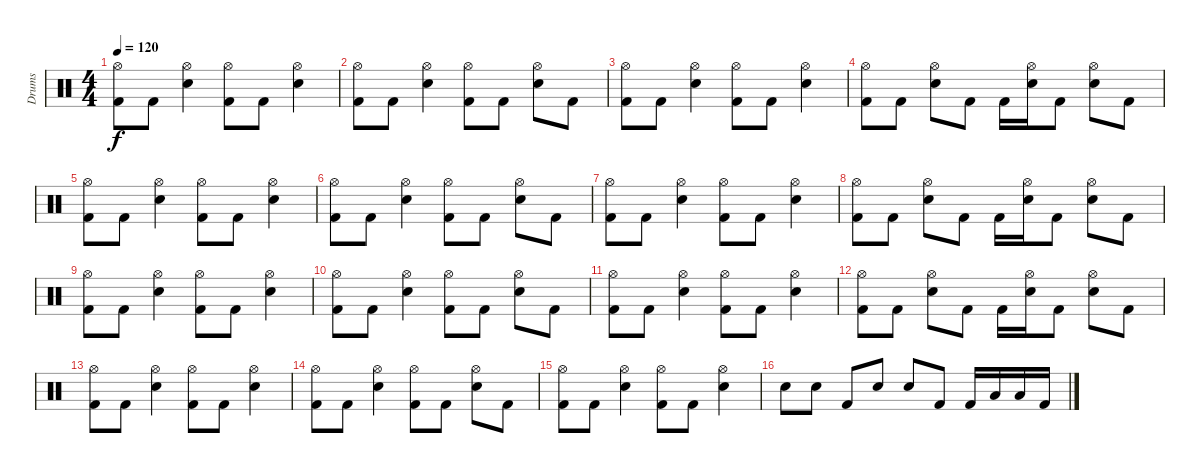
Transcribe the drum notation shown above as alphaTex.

\track ("Drums" "Drums") {instrument percussion}
\staff {score}
\articulation defaults
\ts (4 4)
\tempo 120
\clef neutral
\ks c
("Hi-Hat (open)" "Kick (hit) 2").8{dy f} "Kick (hit) 2".8 ("Hi-Hat (open)" "Snare (hit) 2").4 ("Hi-Hat (open)" "Kick (hit) 2").8 "Kick (hit) 2".8 ("Hi-Hat (open)" "Snare (hit) 2").4 |
("Hi-Hat (open)" "Kick (hit) 2").8 "Kick (hit) 2".8 ("Hi-Hat (open)" "Snare (hit) 2").4 ("Hi-Hat (open)" "Kick (hit) 2").8 "Kick (hit) 2".8 ("Hi-Hat (open)" "Snare (hit) 2").8 "Kick (hit) 2".8 |
("Hi-Hat (open)" "Kick (hit) 2").8 "Kick (hit) 2".8 ("Hi-Hat (open)" "Snare (hit) 2").4 ("Hi-Hat (open)" "Kick (hit) 2").8 "Kick (hit) 2".8 ("Hi-Hat (open)" "Snare (hit) 2").4 |
("Hi-Hat (open)" "Kick (hit) 2").8 "Kick (hit) 2".8 ("Hi-Hat (open)" "Snare (hit) 2").8 "Kick (hit) 2".8 "Kick (hit) 2".16 ("Hi-Hat (open)" "Snare (hit) 2").16 "Kick (hit) 2".8 ("Hi-Hat (open)" "Snare (hit) 2").8 "Kick (hit) 2".8 |
("Hi-Hat (open)" "Kick (hit) 2").8 "Kick (hit) 2".8 ("Hi-Hat (open)" "Snare (hit) 2").4 ("Hi-Hat (open)" "Kick (hit) 2").8 "Kick (hit) 2".8 ("Hi-Hat (open)" "Snare (hit) 2").4 |
("Hi-Hat (open)" "Kick (hit) 2").8 "Kick (hit) 2".8 ("Hi-Hat (open)" "Snare (hit) 2").4 ("Hi-Hat (open)" "Kick (hit) 2").8 "Kick (hit) 2".8 ("Hi-Hat (open)" "Snare (hit) 2").8 "Kick (hit) 2".8 |
("Hi-Hat (open)" "Kick (hit) 2").8 "Kick (hit) 2".8 ("Hi-Hat (open)" "Snare (hit) 2").4 ("Hi-Hat (open)" "Kick (hit) 2").8 "Kick (hit) 2".8 ("Hi-Hat (open)" "Snare (hit) 2").4 |
("Hi-Hat (open)" "Kick (hit) 2").8 "Kick (hit) 2".8 ("Hi-Hat (open)" "Snare (hit) 2").8 "Kick (hit) 2".8 "Kick (hit) 2".16 ("Hi-Hat (open)" "Snare (hit) 2").16 "Kick (hit) 2".8 ("Hi-Hat (open)" "Snare (hit) 2").8 "Kick (hit) 2".8 |
("Hi-Hat (open)" "Kick (hit) 2").8 "Kick (hit) 2".8 ("Hi-Hat (open)" "Snare (hit) 2").4 ("Hi-Hat (open)" "Kick (hit) 2").8 "Kick (hit) 2".8 ("Hi-Hat (open)" "Snare (hit) 2").4 |
("Hi-Hat (open)" "Kick (hit) 2").8 "Kick (hit) 2".8 ("Hi-Hat (open)" "Snare (hit) 2").4 ("Hi-Hat (open)" "Kick (hit) 2").8 "Kick (hit) 2".8 ("Hi-Hat (open)" "Snare (hit) 2").8 "Kick (hit) 2".8 |
("Hi-Hat (open)" "Kick (hit) 2").8 "Kick (hit) 2".8 ("Hi-Hat (open)" "Snare (hit) 2").4 ("Hi-Hat (open)" "Kick (hit) 2").8 "Kick (hit) 2".8 ("Hi-Hat (open)" "Snare (hit) 2").4 |
("Hi-Hat (open)" "Kick (hit) 2").8 "Kick (hit) 2".8 ("Hi-Hat (open)" "Snare (hit) 2").8 "Kick (hit) 2".8 "Kick (hit) 2".16 ("Hi-Hat (open)" "Snare (hit) 2").16 "Kick (hit) 2".8 ("Hi-Hat (open)" "Snare (hit) 2").8 "Kick (hit) 2".8 |
("Hi-Hat (open)" "Kick (hit) 2").8 "Kick (hit) 2".8 ("Hi-Hat (open)" "Snare (hit) 2").4 ("Hi-Hat (open)" "Kick (hit) 2").8 "Kick (hit) 2".8 ("Hi-Hat (open)" "Snare (hit) 2").4 |
("Hi-Hat (open)" "Kick (hit) 2").8 "Kick (hit) 2".8 ("Hi-Hat (open)" "Snare (hit) 2").4 ("Hi-Hat (open)" "Kick (hit) 2").8 "Kick (hit) 2".8 ("Hi-Hat (open)" "Snare (hit) 2").8 "Kick (hit) 2".8 |
("Hi-Hat (open)" "Kick (hit) 2").8 "Kick (hit) 2".8 ("Hi-Hat (open)" "Snare (hit) 2").4 ("Hi-Hat (open)" "Kick (hit) 2").8 "Kick (hit) 2".8 ("Hi-Hat (open)" "Snare (hit) 2").4 |
"Snare (hit) 2".8 "Snare (hit) 2".8 "Kick (hit) 2".8 "Snare (hit) 2".8 "Snare (hit) 2".8 "Kick (hit) 2".8 "Kick (hit) 2".16 "Low Tom (hit)".16 "Low Tom (hit)".16 "Kick (hit) 2".16
